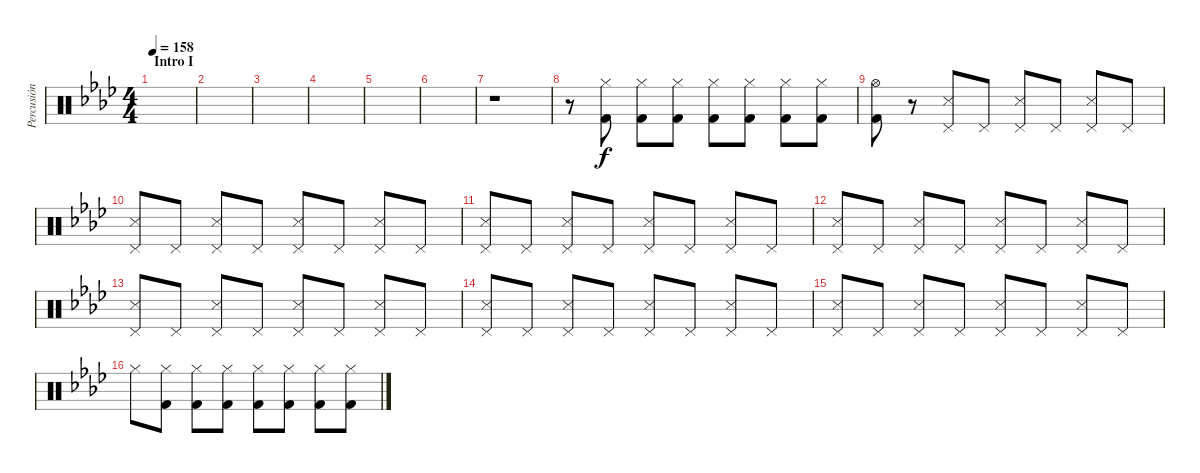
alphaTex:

\track ("Percusión" "Percusión") {instrument percussion}
\staff {score}
\articulation defaults
\ts (4 4)
\section ("" "Intro I")
\tempo 158
\clef neutral
\ks ab
|
|
|
|
|
|
r.1 |
r.8 ("Hi-Hat (closed)" "Kick (hit) 2").8 ("Hi-Hat (closed)" "Kick (hit) 2").8 ("Hi-Hat (closed)" "Kick (hit) 2").8 ("Hi-Hat (closed)" "Kick (hit) 2").8 ("Hi-Hat (closed)" "Kick (hit) 2").8 ("Hi-Hat (closed)" "Kick (hit) 2").8 ("Hi-Hat (closed)" "Kick (hit) 2").8 |
("Hi-Hat (open)" "Kick (hit) 2").8 r.8 ("Pedal Hi-Hat (hit)" "Snare (side stick) 3").8 "Pedal Hi-Hat (hit)".8 ("Pedal Hi-Hat (hit)" "Snare (side stick) 3").8 "Pedal Hi-Hat (hit)".8 ("Pedal Hi-Hat (hit)" "Snare (side stick) 3").8 "Pedal Hi-Hat (hit)".8 |
("Pedal Hi-Hat (hit)" "Snare (side stick) 3").8 "Pedal Hi-Hat (hit)".8 ("Pedal Hi-Hat (hit)" "Snare (side stick) 3").8 "Pedal Hi-Hat (hit)".8 ("Pedal Hi-Hat (hit)" "Snare (side stick) 3").8 "Pedal Hi-Hat (hit)".8 ("Pedal Hi-Hat (hit)" "Snare (side stick) 3").8 "Pedal Hi-Hat (hit)".8 |
("Pedal Hi-Hat (hit)" "Snare (side stick) 3").8 "Pedal Hi-Hat (hit)".8 ("Pedal Hi-Hat (hit)" "Snare (side stick) 3").8 "Pedal Hi-Hat (hit)".8 ("Pedal Hi-Hat (hit)" "Snare (side stick) 3").8 "Pedal Hi-Hat (hit)".8 ("Pedal Hi-Hat (hit)" "Snare (side stick) 3").8 "Pedal Hi-Hat (hit)".8 |
("Pedal Hi-Hat (hit)" "Snare (side stick) 3").8 "Pedal Hi-Hat (hit)".8 ("Pedal Hi-Hat (hit)" "Snare (side stick) 3").8 "Pedal Hi-Hat (hit)".8 ("Pedal Hi-Hat (hit)" "Snare (side stick) 3").8 "Pedal Hi-Hat (hit)".8 ("Pedal Hi-Hat (hit)" "Snare (side stick) 3").8 "Pedal Hi-Hat (hit)".8 |
("Pedal Hi-Hat (hit)" "Snare (side stick) 3").8 "Pedal Hi-Hat (hit)".8 ("Pedal Hi-Hat (hit)" "Snare (side stick) 3").8 "Pedal Hi-Hat (hit)".8 ("Pedal Hi-Hat (hit)" "Snare (side stick) 3").8 "Pedal Hi-Hat (hit)".8 ("Pedal Hi-Hat (hit)" "Snare (side stick) 3").8 "Pedal Hi-Hat (hit)".8 |
("Pedal Hi-Hat (hit)" "Snare (side stick) 3").8 "Pedal Hi-Hat (hit)".8 ("Pedal Hi-Hat (hit)" "Snare (side stick) 3").8 "Pedal Hi-Hat (hit)".8 ("Pedal Hi-Hat (hit)" "Snare (side stick) 3").8 "Pedal Hi-Hat (hit)".8 ("Pedal Hi-Hat (hit)" "Snare (side stick) 3").8 "Pedal Hi-Hat (hit)".8 |
("Pedal Hi-Hat (hit)" "Snare (side stick) 3").8 "Pedal Hi-Hat (hit)".8 ("Pedal Hi-Hat (hit)" "Snare (side stick) 3").8 "Pedal Hi-Hat (hit)".8 ("Pedal Hi-Hat (hit)" "Snare (side stick) 3").8 "Pedal Hi-Hat (hit)".8 ("Pedal Hi-Hat (hit)" "Snare (side stick) 3").8 "Pedal Hi-Hat (hit)".8 |
"Hi-Hat (closed)".8 ("Hi-Hat (closed)" "Kick (hit) 2").8 ("Hi-Hat (closed)" "Kick (hit) 2").8 ("Hi-Hat (closed)" "Kick (hit) 2").8 ("Hi-Hat (closed)" "Kick (hit) 2").8 ("Hi-Hat (closed)" "Kick (hit) 2").8 ("Hi-Hat (closed)" "Kick (hit) 2").8 ("Hi-Hat (closed)" "Kick (hit) 2").8
